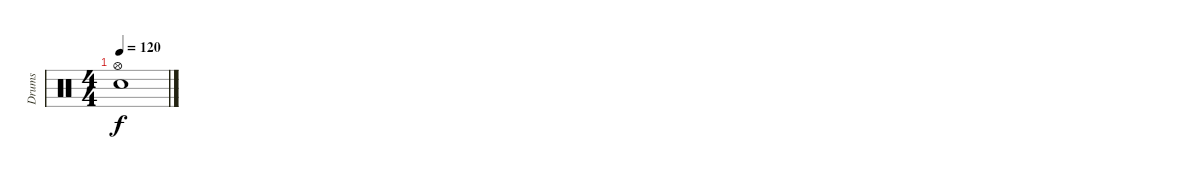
\track ("Drums" "Drums") {instrument percussion}
\staff {score}
\articulation defaults
\ts (4 4)
\tempo 120
\clef neutral
\ks c
("Electric Snare (hit)" "Hi-Hat (open)").1{dy f}
